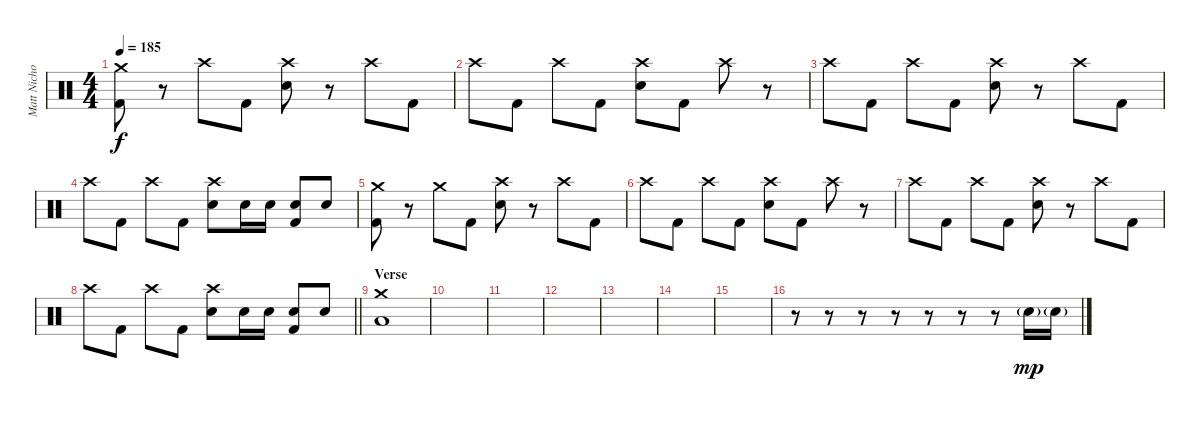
\track ("Matt Nicholls" "Matt Nicho") {instrument percussion}
\staff {score}
\articulation defaults
\ts (4 4)
\tempo 185
\clef neutral
\ks c
("Crash medium (hit)" "Kick (hit) 2").8{dy f} r.8 "Crash high (hit)".8 "Kick (hit) 2".8 ("Crash high (hit)" "Electric Snare (hit)").8 r.8 "Crash high (hit)".8 "Kick (hit) 2".8 |
"Crash high (hit)".8 "Kick (hit) 2".8 "Crash high (hit)".8 "Kick (hit) 2".8 ("Crash high (hit)" "Electric Snare (hit)").8 "Kick (hit) 2".8 "Crash high (hit)".8 r.8 |
"Crash high (hit)".8 "Kick (hit) 2".8 "Crash high (hit)".8 "Kick (hit) 2".8 ("Crash high (hit)" "Electric Snare (hit)").8 r.8 "Crash high (hit)".8 "Kick (hit) 2".8 |
"Crash high (hit)".8 "Kick (hit) 2".8 "Crash high (hit)".8 "Kick (hit) 2".8 ("Crash high (hit)" "Electric Snare (hit)").8 "Electric Snare (hit)".16 "Electric Snare (hit)".16 ("Electric Snare (hit)" "Kick (hit) 2").8 "Electric Snare (hit)".8 |
("Crash medium (hit)" "Kick (hit) 2").8 r.8 "Crash medium (hit)".8 "Kick (hit) 2".8 ("Crash high (hit)" "Electric Snare (hit)").8 r.8 "Crash high (hit)".8 "Kick (hit) 2".8 |
"Crash high (hit)".8 "Kick (hit) 2".8 "Crash high (hit)".8 "Kick (hit) 2".8 ("Crash high (hit)" "Electric Snare (hit)").8 "Kick (hit) 2".8 "Crash high (hit)".8 r.8 |
"Crash high (hit)".8 "Kick (hit) 2".8 "Crash high (hit)".8 "Kick (hit) 2".8 ("Crash high (hit)" "Electric Snare (hit)").8 r.8 "Crash high (hit)".8 "Kick (hit) 2".8 |
\barLineRight lightlight "Crash high (hit)".8 "Kick (hit) 2".8 "Crash high (hit)".8 "Kick (hit) 2".8
("Crash high (hit)" "Electric Snare (hit)").8 "Electric Snare (hit)".16 "Electric Snare (hit)".16 ("Electric Snare (hit)" "Kick (hit) 2").8 "Electric Snare (hit)".8 |
\section ("" "Verse")
("Crash medium (hit)" "Low Floor Tom (hit)").1 |
|
|
|
|
|
|
r.8 r.8 r.8 r.8 r.8 r.8 r.8 "Electric Snare (hit)"{g}.16{dy mp} "Electric Snare (hit)"{g}.16
